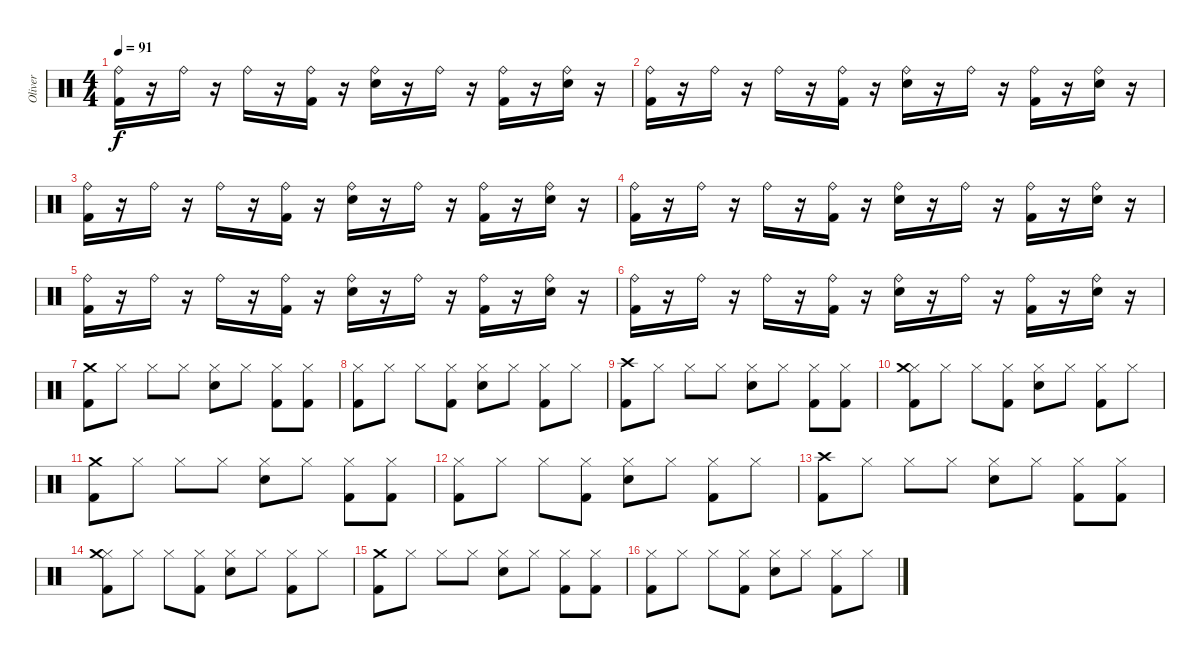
\track ("Oliver" "Oliver") {instrument percussion}
\staff {score}
\articulation defaults
\ts (4 4)
\tempo 91
\clef neutral
\ks c
("Ride (bell)" "Kick (hit) 2").16{dy f} r.16 "Ride (bell)".16 r.16 "Ride (bell)".16 r.16 ("Ride (bell)" "Kick (hit) 2").16 r.16 ("Ride (bell)" "Snare (hit) 2").16 r.16 "Ride (bell)".16 r.16 ("Ride (bell)" "Kick (hit) 2").16 r.16 ("Ride (bell)" "Snare (hit) 2").16 r.16 |
("Ride (bell)" "Kick (hit) 2").16 r.16 "Ride (bell)".16 r.16 "Ride (bell)".16 r.16 ("Ride (bell)" "Kick (hit) 2").16 r.16 ("Ride (bell)" "Snare (hit) 2").16 r.16 "Ride (bell)".16 r.16 ("Ride (bell)" "Kick (hit) 2").16 r.16 ("Ride (bell)" "Snare (hit) 2").16 r.16 |
("Ride (bell)" "Kick (hit) 2").16 r.16 "Ride (bell)".16 r.16 "Ride (bell)".16 r.16 ("Ride (bell)" "Kick (hit) 2").16 r.16 ("Ride (bell)" "Snare (hit) 2").16 r.16 "Ride (bell)".16 r.16 ("Ride (bell)" "Kick (hit) 2").16 r.16 ("Ride (bell)" "Snare (hit) 2").16 r.16 |
("Ride (bell)" "Kick (hit) 2").16 r.16 "Ride (bell)".16 r.16 "Ride (bell)".16 r.16 ("Ride (bell)" "Kick (hit) 2").16 r.16 ("Ride (bell)" "Snare (hit) 2").16 r.16 "Ride (bell)".16 r.16 ("Ride (bell)" "Kick (hit) 2").16 r.16 ("Ride (bell)" "Snare (hit) 2").16 r.16 |
("Ride (bell)" "Kick (hit) 2").16 r.16 "Ride (bell)".16 r.16 "Ride (bell)".16 r.16 ("Ride (bell)" "Kick (hit) 2").16 r.16 ("Ride (bell)" "Snare (hit) 2").16 r.16 "Ride (bell)".16 r.16 ("Ride (bell)" "Kick (hit) 2").16 r.16 ("Ride (bell)" "Snare (hit) 2").16 r.16 |
("Ride (bell)" "Kick (hit) 2").16 r.16 "Ride (bell)".16 r.16 "Ride (bell)".16 r.16 ("Ride (bell)" "Kick (hit) 2").16 r.16 ("Ride (bell)" "Snare (hit) 2").16 r.16 "Ride (bell)".16 r.16 ("Ride (bell)" "Kick (hit) 2").16 r.16 ("Ride (bell)" "Snare (hit) 2").16 r.16 |
("Kick (hit) 2" "Crash medium (hit)").8 "Hi-Hat (closed)".8 "Hi-Hat (closed)".8 "Hi-Hat (closed)".8 ("Hi-Hat (closed)" "Snare (hit) 2").8 "Hi-Hat (closed)".8 ("Hi-Hat (closed)" "Kick (hit) 2").8 ("Hi-Hat (closed)" "Kick (hit) 2").8 |
("Hi-Hat (closed)" "Kick (hit) 2").8 "Hi-Hat (closed)".8 "Hi-Hat (closed)".8 ("Hi-Hat (closed)" "Kick (hit) 2").8 ("Hi-Hat (closed)" "Snare (hit) 2").8 "Hi-Hat (closed)".8 ("Hi-Hat (closed)" "Kick (hit) 2").8 "Hi-Hat (closed)".8 |
("Kick (hit) 2" "Crash high (hit)").8 "Hi-Hat (closed)".8 "Hi-Hat (closed)".8 "Hi-Hat (closed)".8 ("Hi-Hat (closed)" "Snare (hit) 2").8 "Hi-Hat (closed)".8 ("Hi-Hat (closed)" "Kick (hit) 2").8 ("Hi-Hat (closed)" "Kick (hit) 2").8 |
("Hi-Hat (closed)" "Kick (hit) 2" "Crash medium (hit)").8 "Hi-Hat (closed)".8 "Hi-Hat (closed)".8 ("Hi-Hat (closed)" "Kick (hit) 2").8 ("Hi-Hat (closed)" "Snare (hit) 2").8 "Hi-Hat (closed)".8 ("Hi-Hat (closed)" "Kick (hit) 2").8 "Hi-Hat (closed)".8 |
("Kick (hit) 2" "Crash medium (hit)").8 "Hi-Hat (closed)".8 "Hi-Hat (closed)".8 "Hi-Hat (closed)".8 ("Hi-Hat (closed)" "Snare (hit) 2").8 "Hi-Hat (closed)".8 ("Hi-Hat (closed)" "Kick (hit) 2").8 ("Hi-Hat (closed)" "Kick (hit) 2").8 |
("Hi-Hat (closed)" "Kick (hit) 2").8 "Hi-Hat (closed)".8 "Hi-Hat (closed)".8 ("Hi-Hat (closed)" "Kick (hit) 2").8 ("Hi-Hat (closed)" "Snare (hit) 2").8 "Hi-Hat (closed)".8 ("Hi-Hat (closed)" "Kick (hit) 2").8 "Hi-Hat (closed)".8 |
("Kick (hit) 2" "Crash high (hit)").8 "Hi-Hat (closed)".8 "Hi-Hat (closed)".8 "Hi-Hat (closed)".8 ("Hi-Hat (closed)" "Snare (hit) 2").8 "Hi-Hat (closed)".8 ("Hi-Hat (closed)" "Kick (hit) 2").8 ("Hi-Hat (closed)" "Kick (hit) 2").8 |
("Hi-Hat (closed)" "Kick (hit) 2" "Crash medium (hit)").8 "Hi-Hat (closed)".8 "Hi-Hat (closed)".8 ("Hi-Hat (closed)" "Kick (hit) 2").8 ("Hi-Hat (closed)" "Snare (hit) 2").8 "Hi-Hat (closed)".8 ("Hi-Hat (closed)" "Kick (hit) 2").8 "Hi-Hat (closed)".8 |
("Kick (hit) 2" "Crash medium (hit)").8 "Hi-Hat (closed)".8 "Hi-Hat (closed)".8 "Hi-Hat (closed)".8 ("Hi-Hat (closed)" "Snare (hit) 2").8 "Hi-Hat (closed)".8 ("Hi-Hat (closed)" "Kick (hit) 2").8 ("Hi-Hat (closed)" "Kick (hit) 2").8 |
("Hi-Hat (closed)" "Kick (hit) 2").8 "Hi-Hat (closed)".8 "Hi-Hat (closed)".8 ("Hi-Hat (closed)" "Kick (hit) 2").8 ("Hi-Hat (closed)" "Snare (hit) 2").8 "Hi-Hat (closed)".8 ("Hi-Hat (closed)" "Kick (hit) 2").8 "Hi-Hat (closed)".8
